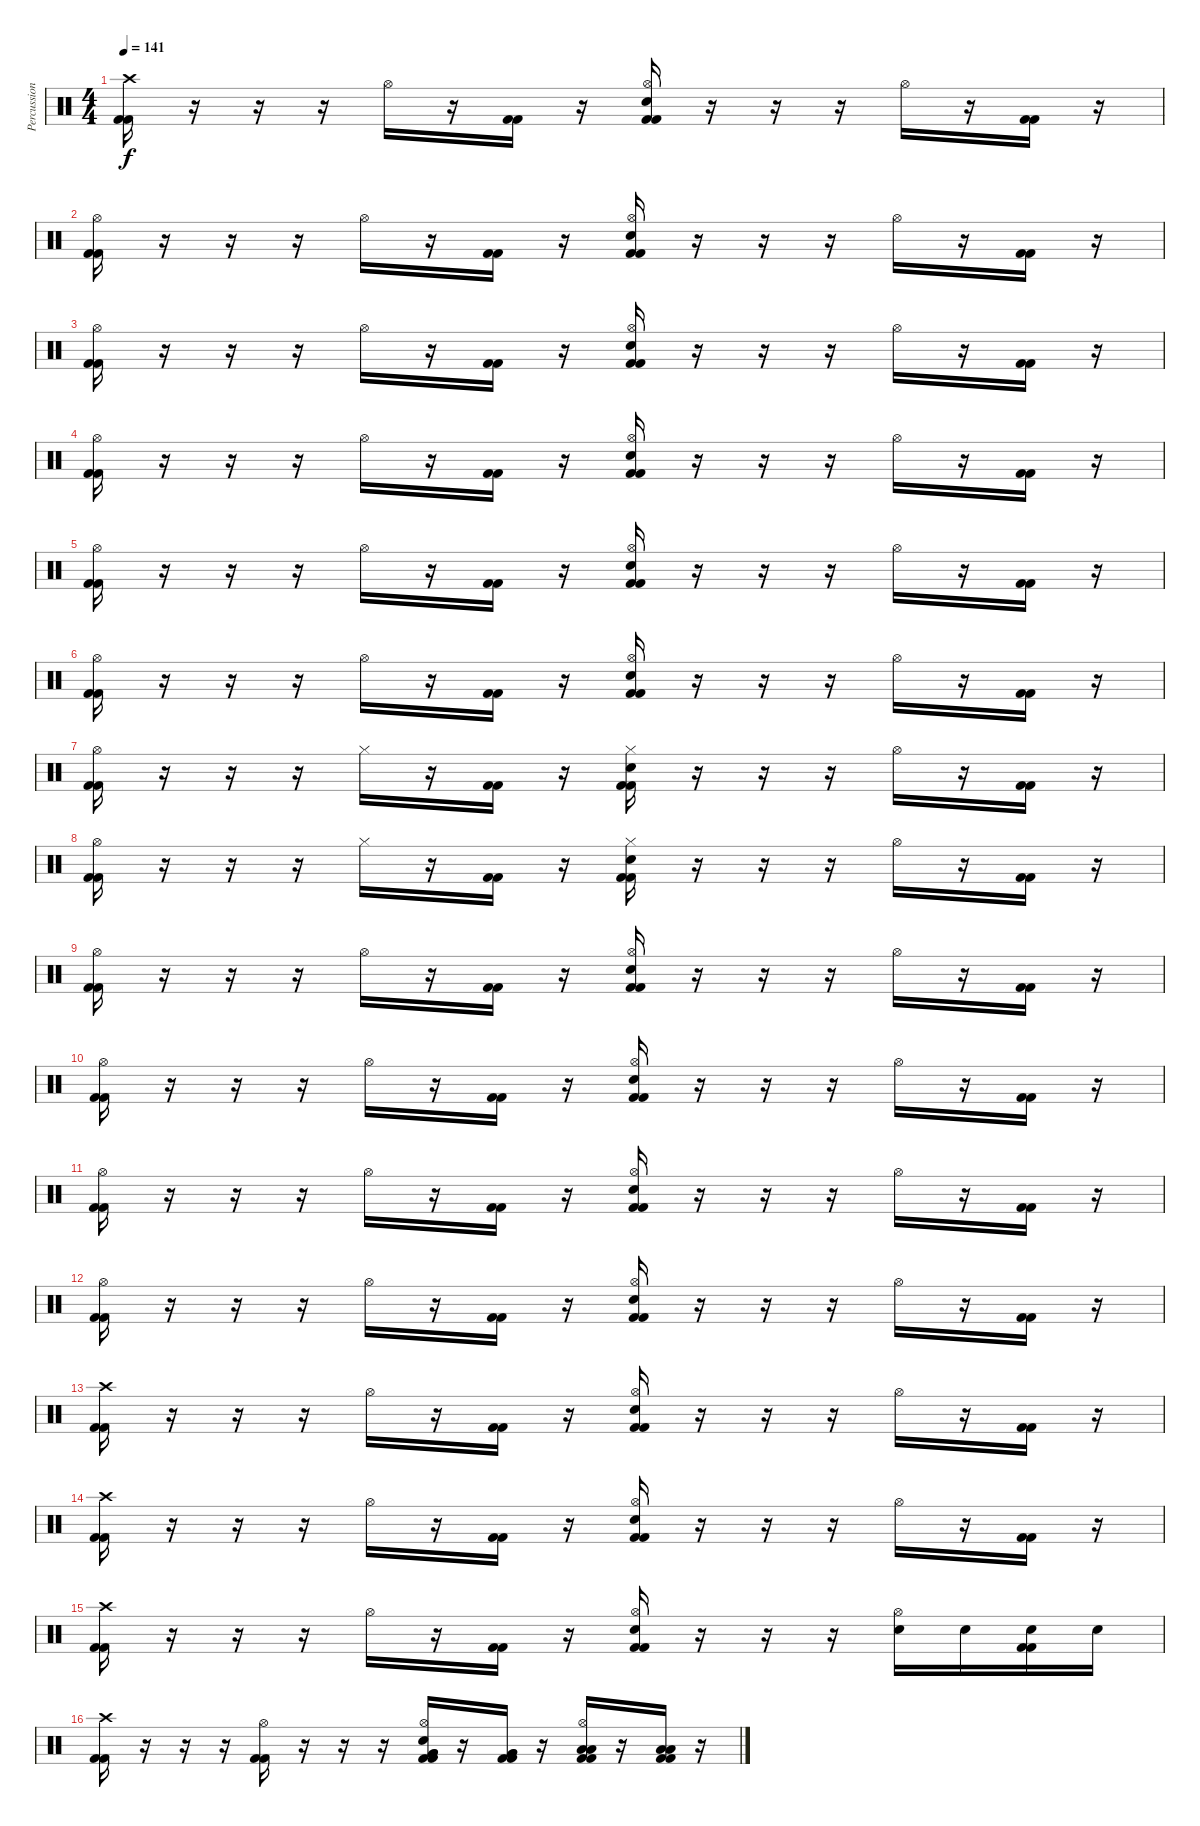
\track ("Percussions" "Percussion") {instrument percussion}
\staff {score}
\articulation defaults
\ts (4 4)
\tempo 141
\clef neutral
\ks c
("Crash high (hit)" "Kick (hit) 2" "Kick (hit) 2").16{dy f} r.16 r.16 r.16 "Hi-Hat (open)".16 r.16 ("Kick (hit) 2" "Kick (hit) 2").16 r.16 ("Hi-Hat (open)" "Snare (hit) 2" "Kick (hit) 2" "Kick (hit) 2").16 r.16 r.16 r.16 "Hi-Hat (open)".16 r.16 ("Kick (hit) 2" "Kick (hit) 2").16 r.16 |
("Hi-Hat (open)" "Kick (hit) 2" "Kick (hit) 2").16 r.16 r.16 r.16 "Hi-Hat (open)".16 r.16 ("Kick (hit) 2" "Kick (hit) 2").16 r.16 ("Hi-Hat (open)" "Snare (hit) 2" "Kick (hit) 2" "Kick (hit) 2").16 r.16 r.16 r.16 "Hi-Hat (open)".16 r.16 ("Kick (hit) 2" "Kick (hit) 2").16 r.16 |
("Hi-Hat (open)" "Kick (hit) 2" "Kick (hit) 2").16 r.16 r.16 r.16 "Hi-Hat (open)".16 r.16 ("Kick (hit) 2" "Kick (hit) 2").16 r.16 ("Hi-Hat (open)" "Snare (hit) 2" "Kick (hit) 2" "Kick (hit) 2").16 r.16 r.16 r.16 "Hi-Hat (open)".16 r.16 ("Kick (hit) 2" "Kick (hit) 2").16 r.16 |
("Hi-Hat (open)" "Kick (hit) 2" "Kick (hit) 2").16 r.16 r.16 r.16 "Hi-Hat (open)".16 r.16 ("Kick (hit) 2" "Kick (hit) 2").16 r.16 ("Hi-Hat (open)" "Snare (hit) 2" "Kick (hit) 2" "Kick (hit) 2").16 r.16 r.16 r.16 "Hi-Hat (open)".16 r.16 ("Kick (hit) 2" "Kick (hit) 2").16 r.16 |
("Hi-Hat (open)" "Kick (hit) 2" "Kick (hit) 2").16 r.16 r.16 r.16 "Hi-Hat (open)".16 r.16 ("Kick (hit) 2" "Kick (hit) 2").16 r.16 ("Hi-Hat (open)" "Snare (hit) 2" "Kick (hit) 2" "Kick (hit) 2").16 r.16 r.16 r.16 "Hi-Hat (open)".16 r.16 ("Kick (hit) 2" "Kick (hit) 2").16 r.16 |
("Hi-Hat (open)" "Kick (hit) 2" "Kick (hit) 2").16 r.16 r.16 r.16 "Hi-Hat (open)".16 r.16 ("Kick (hit) 2" "Kick (hit) 2").16 r.16 ("Hi-Hat (open)" "Snare (hit) 2" "Kick (hit) 2" "Kick (hit) 2").16 r.16 r.16 r.16 "Hi-Hat (open)".16 r.16 ("Kick (hit) 2" "Kick (hit) 2").16 r.16 |
("Hi-Hat (open)" "Kick (hit) 2" "Kick (hit) 2").16 r.16 r.16 r.16 "Hi-Hat (closed)".16 r.16 ("Kick (hit) 2" "Kick (hit) 2").16 r.16 ("Hi-Hat (closed)" "Snare (hit) 2" "Kick (hit) 2" "Kick (hit) 2").16 r.16 r.16 r.16 "Hi-Hat (open)".16 r.16 ("Kick (hit) 2" "Kick (hit) 2").16 r.16 |
("Hi-Hat (open)" "Kick (hit) 2" "Kick (hit) 2").16 r.16 r.16 r.16 "Hi-Hat (closed)".16 r.16 ("Kick (hit) 2" "Kick (hit) 2").16 r.16 ("Hi-Hat (closed)" "Snare (hit) 2" "Kick (hit) 2" "Kick (hit) 2").16 r.16 r.16 r.16 "Hi-Hat (open)".16 r.16 ("Kick (hit) 2" "Kick (hit) 2").16 r.16 |
("Hi-Hat (open)" "Kick (hit) 2" "Kick (hit) 2").16 r.16 r.16 r.16 "Hi-Hat (open)".16 r.16 ("Kick (hit) 2" "Kick (hit) 2").16 r.16 ("Hi-Hat (open)" "Snare (hit) 2" "Kick (hit) 2" "Kick (hit) 2").16 r.16 r.16 r.16 "Hi-Hat (open)".16 r.16 ("Kick (hit) 2" "Kick (hit) 2").16 r.16 |
("Hi-Hat (open)" "Kick (hit) 2" "Kick (hit) 2").16 r.16 r.16 r.16 "Hi-Hat (open)".16 r.16 ("Kick (hit) 2" "Kick (hit) 2").16 r.16 ("Hi-Hat (open)" "Snare (hit) 2" "Kick (hit) 2" "Kick (hit) 2").16 r.16 r.16 r.16 "Hi-Hat (open)".16 r.16 ("Kick (hit) 2" "Kick (hit) 2").16 r.16 |
("Hi-Hat (open)" "Kick (hit) 2" "Kick (hit) 2").16 r.16 r.16 r.16 "Hi-Hat (open)".16 r.16 ("Kick (hit) 2" "Kick (hit) 2").16 r.16 ("Hi-Hat (open)" "Snare (hit) 2" "Kick (hit) 2" "Kick (hit) 2").16 r.16 r.16 r.16 "Hi-Hat (open)".16 r.16 ("Kick (hit) 2" "Kick (hit) 2").16 r.16 |
("Hi-Hat (open)" "Kick (hit) 2" "Kick (hit) 2").16 r.16 r.16 r.16 "Hi-Hat (open)".16 r.16 ("Kick (hit) 2" "Kick (hit) 2").16 r.16 ("Hi-Hat (open)" "Snare (hit) 2" "Kick (hit) 2" "Kick (hit) 2").16 r.16 r.16 r.16 "Hi-Hat (open)".16 r.16 ("Kick (hit) 2" "Kick (hit) 2").16 r.16 |
("Crash high (hit)" "Kick (hit) 2" "Kick (hit) 2").16 r.16 r.16 r.16 "Hi-Hat (open)".16 r.16 ("Kick (hit) 2" "Kick (hit) 2").16 r.16 ("Hi-Hat (open)" "Snare (hit) 2" "Kick (hit) 2" "Kick (hit) 2").16 r.16 r.16 r.16 "Hi-Hat (open)".16 r.16 ("Kick (hit) 2" "Kick (hit) 2").16 r.16 |
("Crash high (hit)" "Kick (hit) 2" "Kick (hit) 2").16 r.16 r.16 r.16 "Hi-Hat (open)".16 r.16 ("Kick (hit) 2" "Kick (hit) 2").16 r.16 ("Hi-Hat (open)" "Snare (hit) 2" "Kick (hit) 2" "Kick (hit) 2").16 r.16 r.16 r.16 "Hi-Hat (open)".16 r.16 ("Kick (hit) 2" "Kick (hit) 2").16 r.16 |
("Crash high (hit)" "Kick (hit) 2" "Kick (hit) 2").16 r.16 r.16 r.16 "Hi-Hat (open)".16 r.16 ("Kick (hit) 2" "Kick (hit) 2").16 r.16 ("Hi-Hat (open)" "Snare (hit) 2" "Kick (hit) 2" "Kick (hit) 2").16 r.16 r.16 r.16 ("Hi-Hat (open)" "Snare (hit) 2").16 "Snare (hit) 2".16 ("Snare (hit) 2" "Kick (hit) 2" "Kick (hit) 2").16 "Snare (hit) 2".16 |
("Crash high (hit)" "Kick (hit) 2" "Kick (hit) 2").16 r.16 r.16 r.16 ("Hi-Hat (open)" "Kick (hit) 2" "Kick (hit) 2").16 r.16 r.16 r.16 ("Hi-Hat (open)" "Kick (hit) 2" "Snare (hit) 2" "Very Low Tom (hit)" "Very Low Tom (hit)" "Kick (hit) 2").16 r.16 ("Kick (hit) 2" "Very Low Tom (hit)" "Very Low Tom (hit)" "Kick (hit) 2").16 r.16 ("Hi-Hat (open)" "Low Floor Tom (hit)" "Low Floor Tom (hit)" "Kick (hit) 2" "Kick (hit) 2").16 r.16 ("Low Floor Tom (hit)" "Low Floor Tom (hit)" "Kick (hit) 2" "Kick (hit) 2").16 r.16
